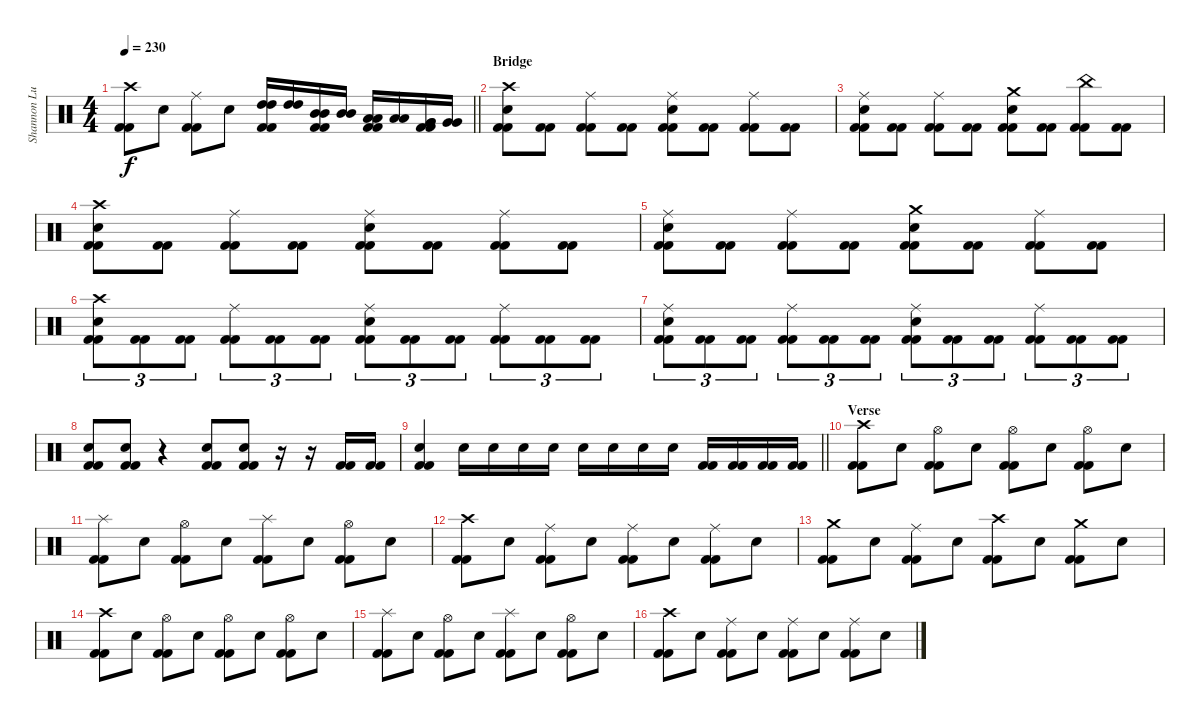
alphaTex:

\track ("Shannon Lucas" "Shannon Lu") {instrument percussion}
\staff {score}
\articulation defaults
\ts (4 4)
\tempo 230
\clef neutral
\barLineRight lightlight
\ks c
("Crash high (hit)" "Kick (hit) 2" "Kick (hit) 2").8{dy f} "Electric Snare (hit)".8 ("Ride (middle)" "Kick (hit) 2" "Kick (hit) 2").8 "Electric Snare (hit)".8 ("High Tom (hit)" "High Tom (hit)" "Kick (hit) 2" "Kick (hit) 2").16 ("High Tom (hit)" "High Tom (hit)").16 ("Mid Tom (hit)" "Mid Tom (hit)" "Kick (hit) 2" "Kick (hit) 2").16 ("Mid Tom (hit)" "Mid Tom (hit)").16 ("Low Tom (hit)" "Low Tom (hit)" "Kick (hit) 2" "Kick (hit) 2").16 ("Low Tom (hit)" "Low Tom (hit)").16 ("Very Low Tom (hit)" "Very Low Tom (hit)" "Kick (hit) 2" "Kick (hit) 2").16 ("Very Low Tom (hit)" "Very Low Tom (hit)").16 |
\section ("" "Bridge")
("Crash high (hit)" "Electric Snare (hit)" "Kick (hit) 2" "Kick (hit) 2").8 ("Kick (hit) 2" "Kick (hit) 2").8 ("Ride (middle)" "Kick (hit) 2" "Kick (hit) 2").8 ("Kick (hit) 2" "Kick (hit) 2").8 ("Ride (middle)" "Electric Snare (hit)" "Kick (hit) 2" "Kick (hit) 2").8 ("Kick (hit) 2" "Kick (hit) 2").8 ("Ride (middle)" "Kick (hit) 2" "Kick (hit) 2").8 ("Kick (hit) 2" "Kick (hit) 2").8 |
("Ride (middle)" "Electric Snare (hit)" "Kick (hit) 2" "Kick (hit) 2").8 ("Kick (hit) 2" "Kick (hit) 2").8 ("Ride (middle)" "Kick (hit) 2" "Kick (hit) 2").8 ("Kick (hit) 2" "Kick (hit) 2").8 ("Crash medium (hit)" "Electric Snare (hit)" "Kick (hit) 2" "Kick (hit) 2").8 ("Kick (hit) 2" "Kick (hit) 2").8 ("China (hit)" "Kick (hit) 2" "Kick (hit) 2").8 ("Kick (hit) 2" "Kick (hit) 2").8 |
("Crash high (hit)" "Electric Snare (hit)" "Kick (hit) 2" "Kick (hit) 2").8 ("Kick (hit) 2" "Kick (hit) 2").8 ("Ride (middle)" "Kick (hit) 2" "Kick (hit) 2").8 ("Kick (hit) 2" "Kick (hit) 2").8 ("Ride (middle)" "Electric Snare (hit)" "Kick (hit) 2" "Kick (hit) 2").8 ("Kick (hit) 2" "Kick (hit) 2").8 ("Ride (middle)" "Kick (hit) 2" "Kick (hit) 2").8 ("Kick (hit) 2" "Kick (hit) 2").8 |
("Ride (middle)" "Electric Snare (hit)" "Kick (hit) 2" "Kick (hit) 2").8 ("Kick (hit) 2" "Kick (hit) 2").8 ("Ride (middle)" "Kick (hit) 2" "Kick (hit) 2").8 ("Kick (hit) 2" "Kick (hit) 2").8 ("Crash medium (hit)" "Electric Snare (hit)" "Kick (hit) 2" "Kick (hit) 2").8 ("Kick (hit) 2" "Kick (hit) 2").8 ("Ride (middle)" "Kick (hit) 2" "Kick (hit) 2").8 ("Kick (hit) 2" "Kick (hit) 2").8 |
("Crash high (hit)" "Electric Snare (hit)" "Kick (hit) 2" "Kick (hit) 2").8{tu (3 2)} ("Kick (hit) 2" "Kick (hit) 2").8{tu (3 2)} ("Kick (hit) 2" "Kick (hit) 2").8{tu (3 2)} ("Ride (middle)" "Kick (hit) 2" "Kick (hit) 2").8{tu (3 2)} ("Kick (hit) 2" "Kick (hit) 2").8{tu (3 2)} ("Kick (hit) 2" "Kick (hit) 2").8{tu (3 2)} ("Ride (middle)" "Electric Snare (hit)" "Kick (hit) 2" "Kick (hit) 2").8{tu (3 2)} ("Kick (hit) 2" "Kick (hit) 2").8{tu (3 2)} ("Kick (hit) 2" "Kick (hit) 2").8{tu (3 2)} ("Ride (middle)" "Kick (hit) 2" "Kick (hit) 2").8{tu (3 2)} ("Kick (hit) 2" "Kick (hit) 2").8{tu (3 2)} ("Kick (hit) 2" "Kick (hit) 2").8{tu (3 2)} |
("Ride (middle)" "Electric Snare (hit)" "Kick (hit) 2" "Kick (hit) 2").8{tu (3 2)} ("Kick (hit) 2" "Kick (hit) 2").8{tu (3 2)} ("Kick (hit) 2" "Kick (hit) 2").8{tu (3 2)} ("Ride (middle)" "Kick (hit) 2" "Kick (hit) 2").8{tu (3 2)} ("Kick (hit) 2" "Kick (hit) 2").8{tu (3 2)} ("Kick (hit) 2" "Kick (hit) 2").8{tu (3 2)} ("Ride (middle)" "Electric Snare (hit)" "Kick (hit) 2" "Kick (hit) 2").8{tu (3 2)} ("Kick (hit) 2" "Kick (hit) 2").8{tu (3 2)} ("Kick (hit) 2" "Kick (hit) 2").8{tu (3 2)} ("Ride (middle)" "Kick (hit) 2" "Kick (hit) 2").8{tu (3 2)} ("Kick (hit) 2" "Kick (hit) 2").8{tu (3 2)} ("Kick (hit) 2" "Kick (hit) 2").8{tu (3 2)} |
("Electric Snare (hit)" "Kick (hit) 2" "Kick (hit) 2").8 ("Electric Snare (hit)" "Kick (hit) 2" "Kick (hit) 2").8 r.4 ("Electric Snare (hit)" "Kick (hit) 2" "Kick (hit) 2").8 ("Electric Snare (hit)" "Kick (hit) 2" "Kick (hit) 2").8 r.16 r.16 ("Kick (hit) 2" "Kick (hit) 2").16 ("Kick (hit) 2" "Kick (hit) 2").16 |
\barLineRight lightlight
("Electric Snare (hit)" "Kick (hit) 2" "Kick (hit) 2").4 "Electric Snare (hit)".16 "Electric Snare (hit)".16 "Electric Snare (hit)".16 "Electric Snare (hit)".16 "Electric Snare (hit)".16 "Electric Snare (hit)".16 "Electric Snare (hit)".16 "Electric Snare (hit)".16 ("Kick (hit) 2" "Kick (hit) 2").16 ("Kick (hit) 2" "Kick (hit) 2").16 ("Kick (hit) 2" "Kick (hit) 2").16 ("Kick (hit) 2" "Kick (hit) 2").16 |
\section ("" "Verse")
("Crash high (hit)" "Kick (hit) 2" "Kick (hit) 2").8 "Electric Snare (hit)".8 ("Hi-Hat (open)" "Kick (hit) 2" "Kick (hit) 2").8 "Electric Snare (hit)".8 ("Hi-Hat (open)" "Kick (hit) 2" "Kick (hit) 2").8 "Electric Snare (hit)".8 ("Hi-Hat (open)" "Kick (hit) 2" "Kick (hit) 2").8 "Electric Snare (hit)".8 |
("Splash (hit)" "Kick (hit) 2" "Kick (hit) 2").8 "Electric Snare (hit)".8 ("Hi-Hat (open)" "Kick (hit) 2" "Kick (hit) 2").8 "Electric Snare (hit)".8 ("Splash (hit)" "Kick (hit) 2" "Kick (hit) 2").8 "Electric Snare (hit)".8 ("Hi-Hat (open)" "Kick (hit) 2" "Kick (hit) 2").8 "Electric Snare (hit)".8 |
("Crash high (hit)" "Kick (hit) 2" "Kick (hit) 2").8 "Electric Snare (hit)".8 ("Ride (middle)" "Kick (hit) 2" "Kick (hit) 2").8 "Electric Snare (hit)".8 ("Ride (middle)" "Kick (hit) 2" "Kick (hit) 2").8 "Electric Snare (hit)".8 ("Ride (middle)" "Kick (hit) 2" "Kick (hit) 2").8 "Electric Snare (hit)".8 |
("Crash medium (hit)" "Kick (hit) 2" "Kick (hit) 2").8 "Electric Snare (hit)".8 ("Ride (middle)" "Kick (hit) 2" "Kick (hit) 2").8 "Electric Snare (hit)".8 ("Crash high (hit)" "Kick (hit) 2" "Kick (hit) 2").8 "Electric Snare (hit)".8 ("Crash medium (hit)" "Kick (hit) 2" "Kick (hit) 2").8 "Electric Snare (hit)".8 |
("Crash high (hit)" "Kick (hit) 2" "Kick (hit) 2").8 "Electric Snare (hit)".8 ("Hi-Hat (open)" "Kick (hit) 2" "Kick (hit) 2").8 "Electric Snare (hit)".8 ("Hi-Hat (open)" "Kick (hit) 2" "Kick (hit) 2").8 "Electric Snare (hit)".8 ("Hi-Hat (open)" "Kick (hit) 2" "Kick (hit) 2").8 "Electric Snare (hit)".8 |
("Splash (hit)" "Kick (hit) 2" "Kick (hit) 2").8 "Electric Snare (hit)".8 ("Hi-Hat (open)" "Kick (hit) 2" "Kick (hit) 2").8 "Electric Snare (hit)".8 ("Splash (hit)" "Kick (hit) 2" "Kick (hit) 2").8 "Electric Snare (hit)".8 ("Hi-Hat (open)" "Kick (hit) 2" "Kick (hit) 2").8 "Electric Snare (hit)".8 |
("Crash high (hit)" "Kick (hit) 2" "Kick (hit) 2").8 "Electric Snare (hit)".8 ("Ride (middle)" "Kick (hit) 2" "Kick (hit) 2").8 "Electric Snare (hit)".8 ("Ride (middle)" "Kick (hit) 2" "Kick (hit) 2").8 "Electric Snare (hit)".8 ("Ride (middle)" "Kick (hit) 2" "Kick (hit) 2").8 "Electric Snare (hit)".8
